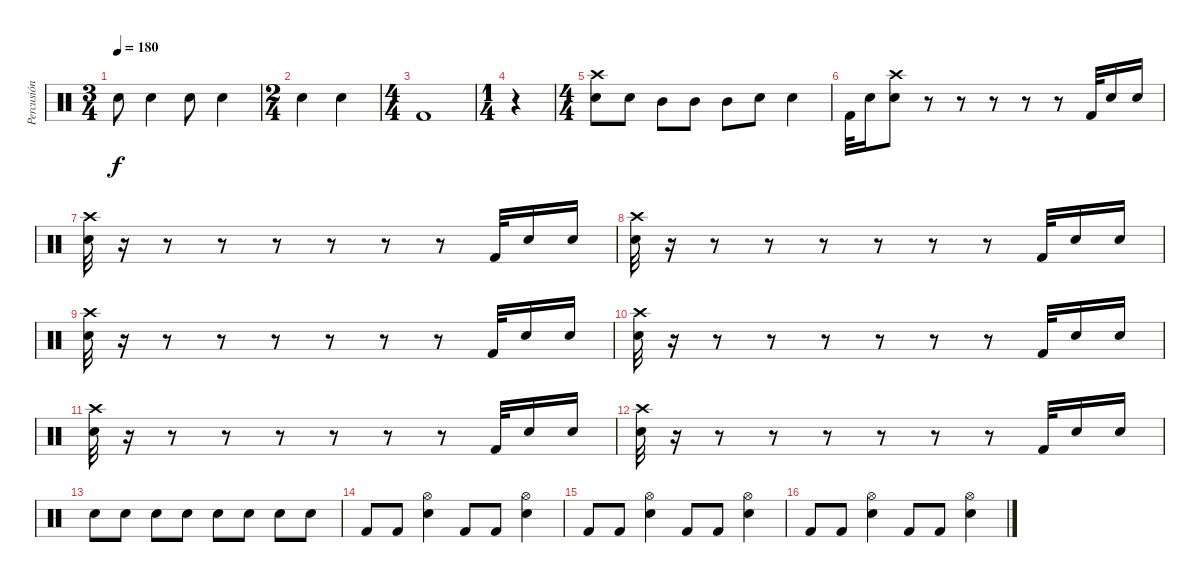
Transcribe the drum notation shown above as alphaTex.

\track ("Percusión" "Percusión") {instrument percussion}
\staff {score}
\articulation defaults
\ts (3 4)
\tempo 180
\clef neutral
\ks c "Electric Snare (hit)".8{dy f} "Electric Snare (hit)".4 "Electric Snare (hit)".8 "Electric Snare (hit)".4
|
\ts (2 4)
"Electric Snare (hit)".4 "Electric Snare (hit)".4 |
\ts (4 4)
"Kick (hit) 2".1 |
\ts (1 4)
r.4 |
\ts (4 4)
("Electric Snare (hit)" "Crash high (hit)").8{volume 9} "Electric Snare (hit)".8{volume 10} "Mid Tom (hit)".8{volume 11} "Mid Tom (hit)".8{volume 12} "Mid Tom (hit)".8{volume 13} "Electric Snare (hit)".8{volume 14} "Electric Snare (hit)".4{volume 16} |
"Kick (hit) 2".32 "Electric Snare (hit)".16 ("Electric Snare (hit)" "Crash high (hit)").8 r.8 r.8 r.8 r.8 r.8 "Kick (hit) 2".32 "Electric Snare (hit)".16 "Electric Snare (hit)".16 |
("Electric Snare (hit)" "Crash high (hit)").32 r.16 r.8 r.8 r.8 r.8 r.8 r.8 "Kick (hit) 2".32 "Electric Snare (hit)".16 "Electric Snare (hit)".16 |
("Electric Snare (hit)" "Crash high (hit)").32 r.16 r.8 r.8 r.8 r.8 r.8 r.8 "Kick (hit) 2".32 "Electric Snare (hit)".16 "Electric Snare (hit)".16 |
("Electric Snare (hit)" "Crash high (hit)").32 r.16 r.8 r.8 r.8 r.8 r.8 r.8 "Kick (hit) 2".32 "Electric Snare (hit)".16 "Electric Snare (hit)".16 |
("Electric Snare (hit)" "Crash high (hit)").32 r.16 r.8 r.8 r.8 r.8 r.8 r.8 "Kick (hit) 2".32 "Electric Snare (hit)".16 "Electric Snare (hit)".16 |
("Electric Snare (hit)" "Crash high (hit)").32 r.16 r.8 r.8 r.8 r.8 r.8 r.8 "Kick (hit) 2".32 "Electric Snare (hit)".16 "Electric Snare (hit)".16 |
("Electric Snare (hit)" "Crash high (hit)").32 r.16 r.8 r.8 r.8 r.8 r.8 r.8 "Kick (hit) 2".32 "Electric Snare (hit)".16 "Electric Snare (hit)".16 |
"Electric Snare (hit)".8 "Electric Snare (hit)".8 "Electric Snare (hit)".8 "Electric Snare (hit)".8 "Electric Snare (hit)".8 "Electric Snare (hit)".8 "Electric Snare (hit)".8 "Electric Snare (hit)".8 |
"Kick (hit) 2".8 "Kick (hit) 2".8 ("Electric Snare (hit)" "Hi-Hat (open)").4 "Kick (hit) 2".8 "Kick (hit) 2".8 ("Electric Snare (hit)" "Hi-Hat (open)").4 |
"Kick (hit) 2".8 "Kick (hit) 2".8 ("Electric Snare (hit)" "Hi-Hat (open)").4 "Kick (hit) 2".8 "Kick (hit) 2".8 ("Electric Snare (hit)" "Hi-Hat (open)").4 |
"Kick (hit) 2".8 "Kick (hit) 2".8 ("Electric Snare (hit)" "Hi-Hat (open)").4 "Kick (hit) 2".8 "Kick (hit) 2".8 ("Electric Snare (hit)" "Hi-Hat (open)").4
